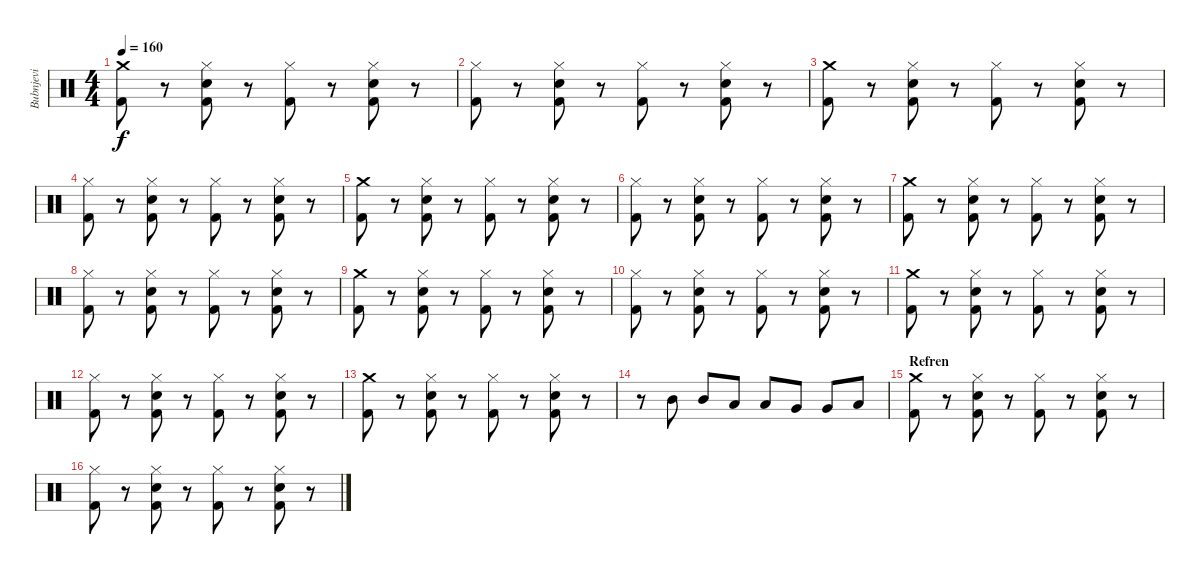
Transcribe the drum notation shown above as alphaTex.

\track ("Bubnjevi" "Bubnjevi") {instrument percussion}
\staff {score}
\articulation defaults
\ts (4 4)
\tempo 160
\clef neutral
\ks c
("Crash medium (hit)" "Kick (hit) 2").8{dy f} r.8 ("Electric Snare (hit)" "Hi-Hat (closed)" "Kick (hit) 2").8 r.8 ("Hi-Hat (closed)" "Kick (hit) 2").8 r.8 ("Electric Snare (hit)" "Hi-Hat (closed)" "Kick (hit) 2").8 r.8 |
("Hi-Hat (closed)" "Kick (hit) 2").8 r.8 ("Electric Snare (hit)" "Hi-Hat (closed)" "Kick (hit) 2").8 r.8 ("Hi-Hat (closed)" "Kick (hit) 2").8 r.8 ("Electric Snare (hit)" "Hi-Hat (closed)" "Kick (hit) 2").8 r.8 |
("Crash medium (hit)" "Kick (hit) 2").8 r.8 ("Electric Snare (hit)" "Hi-Hat (closed)" "Kick (hit) 2").8 r.8 ("Hi-Hat (closed)" "Kick (hit) 2").8 r.8 ("Electric Snare (hit)" "Hi-Hat (closed)" "Kick (hit) 2").8 r.8 |
("Hi-Hat (closed)" "Kick (hit) 2").8 r.8 ("Electric Snare (hit)" "Hi-Hat (closed)" "Kick (hit) 2").8 r.8 ("Hi-Hat (closed)" "Kick (hit) 2").8 r.8 ("Electric Snare (hit)" "Hi-Hat (closed)" "Kick (hit) 2").8 r.8 |
("Crash medium (hit)" "Kick (hit) 2").8 r.8 ("Electric Snare (hit)" "Hi-Hat (closed)" "Kick (hit) 2").8 r.8 ("Hi-Hat (closed)" "Kick (hit) 2").8 r.8 ("Electric Snare (hit)" "Hi-Hat (closed)" "Kick (hit) 2").8 r.8 |
("Hi-Hat (closed)" "Kick (hit) 2").8 r.8 ("Electric Snare (hit)" "Hi-Hat (closed)" "Kick (hit) 2").8 r.8 ("Hi-Hat (closed)" "Kick (hit) 2").8 r.8 ("Electric Snare (hit)" "Hi-Hat (closed)" "Kick (hit) 2").8 r.8 |
("Crash medium (hit)" "Kick (hit) 2").8 r.8 ("Electric Snare (hit)" "Hi-Hat (closed)" "Kick (hit) 2").8 r.8 ("Hi-Hat (closed)" "Kick (hit) 2").8 r.8 ("Electric Snare (hit)" "Hi-Hat (closed)" "Kick (hit) 2").8 r.8 |
("Hi-Hat (closed)" "Kick (hit) 2").8 r.8 ("Electric Snare (hit)" "Hi-Hat (closed)" "Kick (hit) 2").8 r.8 ("Hi-Hat (closed)" "Kick (hit) 2").8 r.8 ("Electric Snare (hit)" "Hi-Hat (closed)" "Kick (hit) 2").8 r.8 |
("Crash medium (hit)" "Kick (hit) 2").8 r.8 ("Electric Snare (hit)" "Hi-Hat (closed)" "Kick (hit) 2").8 r.8 ("Hi-Hat (closed)" "Kick (hit) 2").8 r.8 ("Electric Snare (hit)" "Hi-Hat (closed)" "Kick (hit) 2").8 r.8 |
("Hi-Hat (closed)" "Kick (hit) 2").8 r.8 ("Electric Snare (hit)" "Hi-Hat (closed)" "Kick (hit) 2").8 r.8 ("Hi-Hat (closed)" "Kick (hit) 2").8 r.8 ("Electric Snare (hit)" "Hi-Hat (closed)" "Kick (hit) 2").8 r.8 |
("Crash medium (hit)" "Kick (hit) 2").8 r.8 ("Electric Snare (hit)" "Hi-Hat (closed)" "Kick (hit) 2").8 r.8 ("Hi-Hat (closed)" "Kick (hit) 2").8 r.8 ("Electric Snare (hit)" "Hi-Hat (closed)" "Kick (hit) 2").8 r.8 |
("Hi-Hat (closed)" "Kick (hit) 2").8 r.8 ("Electric Snare (hit)" "Hi-Hat (closed)" "Kick (hit) 2").8 r.8 ("Hi-Hat (closed)" "Kick (hit) 2").8 r.8 ("Electric Snare (hit)" "Hi-Hat (closed)" "Kick (hit) 2").8 r.8 |
("Crash medium (hit)" "Kick (hit) 2").8 r.8 ("Electric Snare (hit)" "Hi-Hat (closed)" "Kick (hit) 2").8 r.8 ("Hi-Hat (closed)" "Kick (hit) 2").8 r.8 ("Electric Snare (hit)" "Hi-Hat (closed)" "Kick (hit) 2").8 r.8 |
r.8 "Mid Tom (hit)".8 "Mid Tom (hit)".8 "Low Tom (hit)".8 "Low Tom (hit)".8 "Very Low Tom (hit)".8 "Very Low Tom (hit)".8 "Low Floor Tom (hit)".8 |
\section ("" "Refren")
("Crash medium (hit)" "Kick (hit) 2").8 r.8 ("Electric Snare (hit)" "Hi-Hat (closed)" "Kick (hit) 2").8 r.8 ("Hi-Hat (closed)" "Kick (hit) 2").8 r.8 ("Electric Snare (hit)" "Hi-Hat (closed)" "Kick (hit) 2").8 r.8 |
("Hi-Hat (closed)" "Kick (hit) 2").8 r.8 ("Electric Snare (hit)" "Hi-Hat (closed)" "Kick (hit) 2").8 r.8 ("Hi-Hat (closed)" "Kick (hit) 2").8 r.8 ("Electric Snare (hit)" "Hi-Hat (closed)" "Kick (hit) 2").8 r.8
